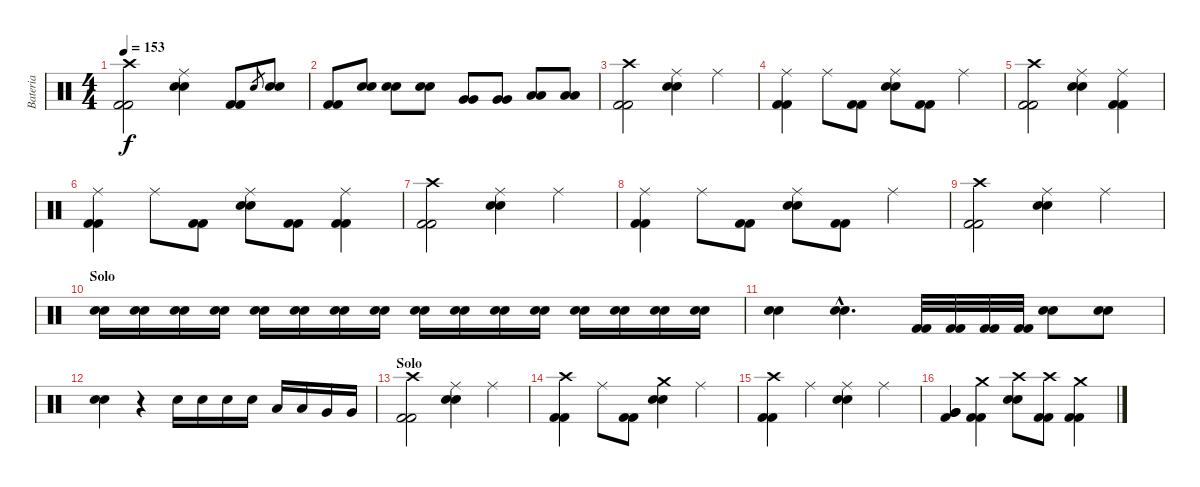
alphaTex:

\track ("Bateria" "Bateria") {instrument percussion}
\staff {score}
\articulation defaults
\ts (4 4)
\tempo 153
\clef neutral
\ks c
("Crash high (hit)" "Kick (hit) 2" "Kick (hit) 2").2{dy f} ("Ride (middle)" "Snare (hit) 2" "Snare (hit) 2").4 ("Kick (hit) 2" "Kick (hit) 2").8 "Snare (hit) 2".8{gr} ("Snare (hit) 2" "Snare (hit) 2").8 |
("Kick (hit) 2" "Kick (hit) 2").8 ("Snare (hit) 2" "Snare (hit) 2").8 ("Snare (hit) 2" "Snare (hit) 2").8 ("Snare (hit) 2" "Snare (hit) 2").8 ("Very Low Tom (hit)" "Very Low Tom (hit)").8 ("Very Low Tom (hit)" "Very Low Tom (hit)").8 ("Low Floor Tom (hit)" "Low Floor Tom (hit)").8 ("Low Floor Tom (hit)" "Low Floor Tom (hit)").8 |
("Crash high (hit)" "Kick (hit) 2" "Kick (hit) 2").2 ("Ride (middle)" "Snare (hit) 2" "Snare (hit) 2").4 "Ride (middle)".4 |
("Ride (middle)" "Kick (hit) 2" "Kick (hit) 2").4 "Ride (middle)".8 ("Kick (hit) 2" "Kick (hit) 2").8 ("Ride (middle)" "Snare (hit) 2" "Snare (hit) 2").8 ("Kick (hit) 2" "Kick (hit) 2").8 "Ride (middle)".4 |
("Crash high (hit)" "Kick (hit) 2" "Kick (hit) 2").2 ("Ride (middle)" "Snare (hit) 2" "Snare (hit) 2").4 ("Ride (middle)" "Kick (hit) 2" "Kick (hit) 2").4 |
("Ride (middle)" "Kick (hit) 2" "Kick (hit) 2").4 "Ride (middle)".8 ("Kick (hit) 2" "Kick (hit) 2").8 ("Ride (middle)" "Snare (hit) 2" "Snare (hit) 2").8 ("Kick (hit) 2" "Kick (hit) 2").8 ("Ride (middle)" "Kick (hit) 2" "Kick (hit) 2").4 |
("Crash high (hit)" "Kick (hit) 2" "Kick (hit) 2").2 ("Ride (middle)" "Snare (hit) 2" "Snare (hit) 2").4 "Ride (middle)".4 |
("Ride (middle)" "Kick (hit) 2" "Kick (hit) 2").4 "Ride (middle)".8 ("Kick (hit) 2" "Kick (hit) 2").8 ("Ride (middle)" "Snare (hit) 2" "Snare (hit) 2").8 ("Kick (hit) 2" "Kick (hit) 2").8 "Ride (middle)".4 |
("Crash high (hit)" "Kick (hit) 2" "Kick (hit) 2").2 ("Ride (middle)" "Snare (hit) 2" "Snare (hit) 2").4 "Ride (middle)".4 |
\section ("" "Solo")
("Snare (hit) 2" "Snare (hit) 2").16 ("Snare (hit) 2" "Snare (hit) 2").16 ("Snare (hit) 2" "Snare (hit) 2").16 ("Snare (hit) 2" "Snare (hit) 2").16 ("Snare (hit) 2" "Snare (hit) 2").16 ("Snare (hit) 2" "Snare (hit) 2").16 ("Snare (hit) 2" "Snare (hit) 2").16 ("Snare (hit) 2" "Snare (hit) 2").16 ("Snare (hit) 2" "Snare (hit) 2").16 ("Snare (hit) 2" "Snare (hit) 2").16 ("Snare (hit) 2" "Snare (hit) 2").16 ("Snare (hit) 2" "Snare (hit) 2").16 ("Snare (hit) 2" "Snare (hit) 2").16 ("Snare (hit) 2" "Snare (hit) 2").16 ("Snare (hit) 2" "Snare (hit) 2").16 ("Snare (hit) 2" "Snare (hit) 2").16 |
("Snare (hit) 2" "Snare (hit) 2").4 ("Snare (hit) 2"{hac} "Snare (hit) 2"{hac}).4{d} ("Kick (hit) 2" "Kick (hit) 2").32 ("Kick (hit) 2" "Kick (hit) 2").32 ("Kick (hit) 2" "Kick (hit) 2").32 ("Kick (hit) 2" "Kick (hit) 2").32 ("Snare (hit) 2" "Snare (hit) 2").8 ("Snare (hit) 2" "Snare (hit) 2").8 |
("Snare (hit) 2" "Snare (hit) 2").4 r.4 "Snare (hit) 2".16 "Snare (hit) 2".16 "Snare (hit) 2".16 "Snare (hit) 2".16 "Low Tom (hit)".16 "Low Tom (hit)".16 "Very Low Tom (hit)".16 "Very Low Tom (hit)".16 |
\section ("" "Solo")
("Crash high (hit)" "Kick (hit) 2" "Kick (hit) 2").2 ("Ride (middle)" "Snare (hit) 2" "Snare (hit) 2").4 "Ride (middle)".4 |
("Crash high (hit)" "Kick (hit) 2" "Kick (hit) 2").4 "Ride (middle)".8 ("Kick (hit) 2" "Kick (hit) 2").8 ("Crash medium (hit)" "Snare (hit) 2" "Snare (hit) 2").4 "Ride (middle)".4 |
("Crash high (hit)" "Kick (hit) 2" "Kick (hit) 2").4 "Ride (middle)".4 ("Ride (middle)" "Snare (hit) 2" "Snare (hit) 2").4 "Ride (middle)".4 |
("Very Low Tom (hit)" "Very Low Tom (hit)" "Kick (hit) 2").4 ("Crash medium (hit)" "Kick (hit) 2" "Kick (hit) 2").4 ("Crash high (hit)" "Snare (hit) 2" "Snare (hit) 2").8 ("Crash high (hit)" "Kick (hit) 2" "Kick (hit) 2").8 ("Crash medium (hit)" "Kick (hit) 2" "Kick (hit) 2").4
